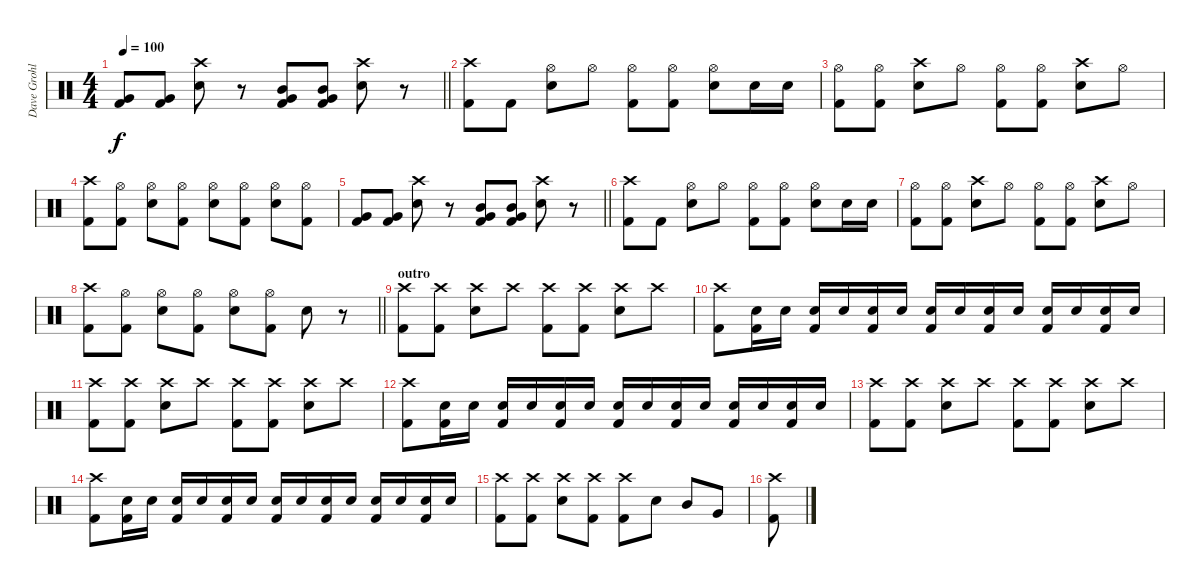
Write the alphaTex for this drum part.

\track ("Dave Grohl" "Dave Grohl") {instrument percussion}
\staff {score}
\articulation defaults
\ts (4 4)
\tempo 100
\clef neutral
\barLineRight lightlight
\ks c
("Very Low Tom (hit)" "Kick (hit) 2").8{dy f} ("Very Low Tom (hit)" "Kick (hit) 2").8 ("Crash high (hit)" "Snare (hit) 2").8 r.8 ("Mid Tom (hit)" "Very Low Tom (hit)" "Kick (hit) 2").8 ("Mid Tom (hit)" "Very Low Tom (hit)" "Kick (hit) 2").8 ("Crash high (hit)" "Snare (hit) 2").8 r.8 |
("Crash high (hit)" "Kick (hit) 2").8 "Kick (hit) 2".8 ("Hi-Hat (open)" "Snare (hit) 2").8 "Hi-Hat (open)".8 ("Hi-Hat (open)" "Kick (hit) 2").8 ("Hi-Hat (open)" "Kick (hit) 2").8 ("Hi-Hat (open)" "Snare (hit) 2").8 "Snare (hit) 2".16 "Snare (hit) 2".16 |
("Hi-Hat (open)" "Kick (hit) 2").8 ("Hi-Hat (open)" "Kick (hit) 2").8 ("Crash high (hit)" "Snare (hit) 2").8 "Hi-Hat (open)".8 ("Hi-Hat (open)" "Kick (hit) 2").8 ("Hi-Hat (open)" "Kick (hit) 2").8 ("Crash high (hit)" "Snare (hit) 2").8 "Hi-Hat (open)".8 |
("Crash high (hit)" "Kick (hit) 2").8 ("Hi-Hat (open)" "Kick (hit) 2").8 ("Hi-Hat (open)" "Snare (hit) 2").8 ("Hi-Hat (open)" "Kick (hit) 2").8 ("Hi-Hat (open)" "Snare (hit) 2").8 ("Hi-Hat (open)" "Kick (hit) 2").8 ("Hi-Hat (open)" "Snare (hit) 2").8 ("Hi-Hat (open)" "Kick (hit) 2").8 |
\barLineRight lightlight
("Very Low Tom (hit)" "Kick (hit) 2").8 ("Very Low Tom (hit)" "Kick (hit) 2").8 ("Crash high (hit)" "Snare (hit) 2").8 r.8 ("Mid Tom (hit)" "Very Low Tom (hit)" "Kick (hit) 2").8 ("Mid Tom (hit)" "Very Low Tom (hit)" "Kick (hit) 2").8 ("Crash high (hit)" "Snare (hit) 2").8 r.8 |
("Crash high (hit)" "Kick (hit) 2").8 "Kick (hit) 2".8 ("Hi-Hat (open)" "Snare (hit) 2").8 "Hi-Hat (open)".8 ("Hi-Hat (open)" "Kick (hit) 2").8 ("Hi-Hat (open)" "Kick (hit) 2").8 ("Hi-Hat (open)" "Snare (hit) 2").8 "Snare (hit) 2".16 "Snare (hit) 2".16 |
("Hi-Hat (open)" "Kick (hit) 2").8 ("Hi-Hat (open)" "Kick (hit) 2").8 ("Crash high (hit)" "Snare (hit) 2").8 "Hi-Hat (open)".8 ("Hi-Hat (open)" "Kick (hit) 2").8 ("Hi-Hat (open)" "Kick (hit) 2").8 ("Crash high (hit)" "Snare (hit) 2").8 "Hi-Hat (open)".8 |
\barLineRight lightlight
("Crash high (hit)" "Kick (hit) 2").8 ("Hi-Hat (open)" "Kick (hit) 2").8 ("Hi-Hat (open)" "Snare (hit) 2").8 ("Hi-Hat (open)" "Kick (hit) 2").8 ("Hi-Hat (open)" "Snare (hit) 2").8 ("Hi-Hat (open)" "Kick (hit) 2").8 "Snare (hit) 2".8 r.8 |
\section ("" "outro")
("Crash high (hit)" "Kick (hit) 2").8 ("Crash high (hit)" "Kick (hit) 2").8 ("Crash high (hit)" "Snare (hit) 2").8 "Crash high (hit)".8 ("Crash high (hit)" "Kick (hit) 2").8 ("Crash high (hit)" "Kick (hit) 2").8 ("Crash high (hit)" "Snare (hit) 2").8 "Crash high (hit)".8 |
("Crash high (hit)" "Kick (hit) 2").8 ("Snare (hit) 2" "Kick (hit) 2").16 "Snare (hit) 2".16 ("Snare (hit) 2" "Kick (hit) 2").16 "Snare (hit) 2".16 ("Snare (hit) 2" "Kick (hit) 2").16 "Snare (hit) 2".16 ("Snare (hit) 2" "Kick (hit) 2").16 "Snare (hit) 2".16 ("Snare (hit) 2" "Kick (hit) 2").16 "Snare (hit) 2".16 ("Snare (hit) 2" "Kick (hit) 2").16 "Snare (hit) 2".16 ("Snare (hit) 2" "Kick (hit) 2").16 "Snare (hit) 2".16 |
("Crash high (hit)" "Kick (hit) 2").8 ("Crash high (hit)" "Kick (hit) 2").8 ("Crash high (hit)" "Snare (hit) 2").8 "Crash high (hit)".8 ("Crash high (hit)" "Kick (hit) 2").8 ("Crash high (hit)" "Kick (hit) 2").8 ("Crash high (hit)" "Snare (hit) 2").8 "Crash high (hit)".8 |
("Crash high (hit)" "Kick (hit) 2").8 ("Snare (hit) 2" "Kick (hit) 2").16 "Snare (hit) 2".16 ("Snare (hit) 2" "Kick (hit) 2").16 "Snare (hit) 2".16 ("Snare (hit) 2" "Kick (hit) 2").16 "Snare (hit) 2".16 ("Snare (hit) 2" "Kick (hit) 2").16 "Snare (hit) 2".16 ("Snare (hit) 2" "Kick (hit) 2").16 "Snare (hit) 2".16 ("Snare (hit) 2" "Kick (hit) 2").16 "Snare (hit) 2".16 ("Snare (hit) 2" "Kick (hit) 2").16 "Snare (hit) 2".16 |
("Crash high (hit)" "Kick (hit) 2").8 ("Crash high (hit)" "Kick (hit) 2").8 ("Crash high (hit)" "Snare (hit) 2").8 "Crash high (hit)".8 ("Crash high (hit)" "Kick (hit) 2").8 ("Crash high (hit)" "Kick (hit) 2").8 ("Crash high (hit)" "Snare (hit) 2").8 "Crash high (hit)".8 |
("Crash high (hit)" "Kick (hit) 2").8 ("Snare (hit) 2" "Kick (hit) 2").16 "Snare (hit) 2".16 ("Snare (hit) 2" "Kick (hit) 2").16 "Snare (hit) 2".16 ("Snare (hit) 2" "Kick (hit) 2").16 "Snare (hit) 2".16 ("Snare (hit) 2" "Kick (hit) 2").16 "Snare (hit) 2".16 ("Snare (hit) 2" "Kick (hit) 2").16 "Snare (hit) 2".16 ("Snare (hit) 2" "Kick (hit) 2").16 "Snare (hit) 2".16 ("Snare (hit) 2" "Kick (hit) 2").16 "Snare (hit) 2".16 |
("Crash high (hit)" "Kick (hit) 2").8 ("Crash high (hit)" "Kick (hit) 2").8 ("Crash high (hit)" "Snare (hit) 2").8 ("Crash high (hit)" "Kick (hit) 2").8 ("Crash high (hit)" "Kick (hit) 2").8 "Snare (hit) 2".8 "Mid Tom (hit)".8 "Very Low Tom (hit)".8 |
("Crash high (hit)" "Kick (hit) 2").8
